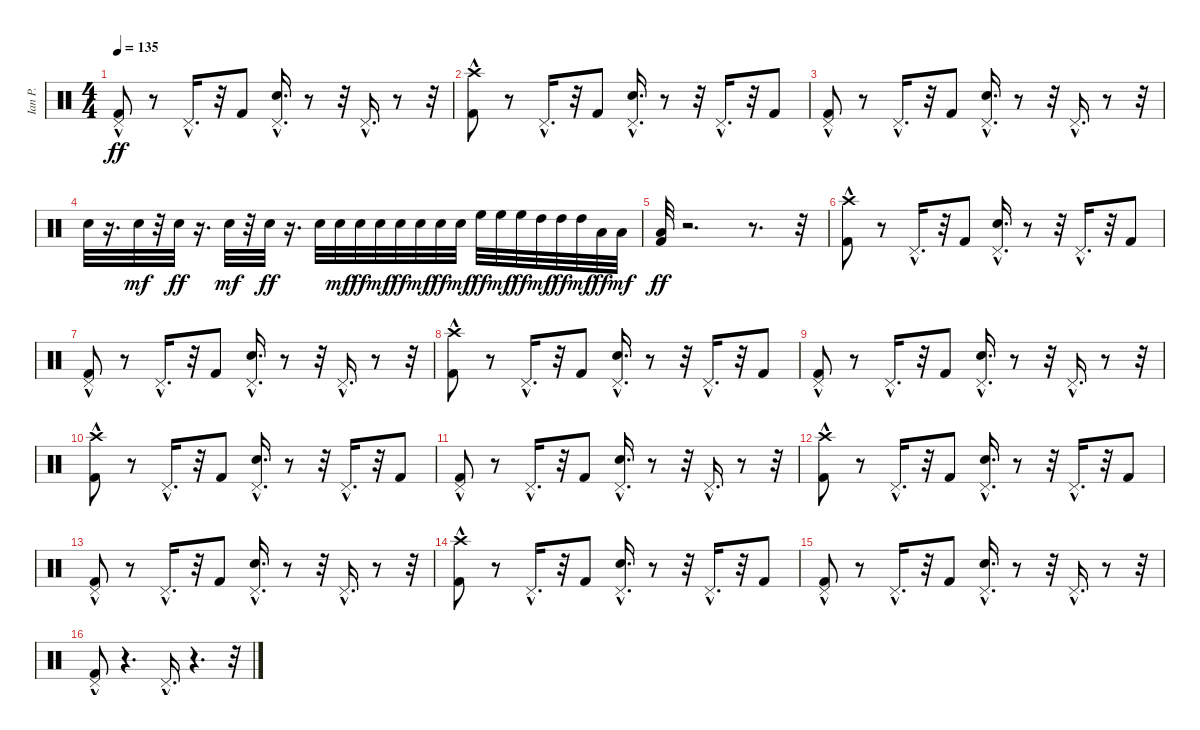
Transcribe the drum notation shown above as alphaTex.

\track ("Ian P." "Ian P.") {instrument percussion}
\staff {score}
\articulation defaults
\ts (4 4)
\tempo 135
\clef neutral
\ks c
("Kick (hit) 2" "Pedal Hi-Hat (hit)"{hac}).8{dy ff} r.8 "Pedal Hi-Hat (hit)"{hac}.16{d} r.32 "Kick (hit) 2".8 ("Snare (hit) 2"{hac} "Pedal Hi-Hat (hit)"{hac}).16{d} r.8 r.32 "Pedal Hi-Hat (hit)"{hac}.16{d} r.8 r.32 |
("Kick (hit) 2" "Crash high (hit)"{hac}).8 r.8 "Pedal Hi-Hat (hit)"{hac}.16{d} r.32 "Kick (hit) 2".8 ("Snare (hit) 2"{hac} "Pedal Hi-Hat (hit)"{hac}).16{d} r.8 r.32 "Pedal Hi-Hat (hit)"{hac}.16{d} r.32 "Kick (hit) 2".8 |
("Kick (hit) 2" "Pedal Hi-Hat (hit)"{hac}).8 r.8 "Pedal Hi-Hat (hit)"{hac}.16{d} r.32 "Kick (hit) 2".8 ("Snare (hit) 2"{hac} "Pedal Hi-Hat (hit)"{hac}).16{d} r.8 r.32 "Pedal Hi-Hat (hit)"{hac}.16{d} r.8 r.32 |
"Snare (hit) 2".32 r.16{d} "Snare (hit) 2".32{dy mf} r.32 "Snare (hit) 2".32{dy ff} r.16{d} "Snare (hit) 2".32{dy mf} r.32 "Snare (hit) 2".32{dy ff} r.16{d} "Snare (hit) 2".32 "Snare (hit) 2".32{dy mf} "Snare (hit) 2".32{dy ff} "Snare (hit) 2".32{dy mf} "Snare (hit) 2".32{dy ff} "Snare (hit) 2".32{dy mf} "Snare (hit) 2".32{dy ff} "Snare (hit) 2".32{dy mf} "High Floor Tom (hit)".32{dy ff} "High Floor Tom (hit)".32{dy mf} "High Floor Tom (hit)".32{dy ff} "High Tom (hit)".32{dy mf} "High Tom (hit)".32{dy ff} "High Tom (hit)".32{dy mf} "Low Tom (hit)".32{dy ff} "Low Tom (hit)".32{dy mf} |
("Low Floor Tom (hit)" "Kick (hit) 2").32{dy ff} r.2{d} r.8{d} r.32 |
("Kick (hit) 2" "Crash high (hit)"{hac}).8 r.8 "Pedal Hi-Hat (hit)"{hac}.16{d} r.32 "Kick (hit) 2".8 ("Snare (hit) 2"{hac} "Pedal Hi-Hat (hit)"{hac}).16{d} r.8 r.32 "Pedal Hi-Hat (hit)"{hac}.16{d} r.32 "Kick (hit) 2".8 |
("Kick (hit) 2" "Pedal Hi-Hat (hit)"{hac}).8 r.8 "Pedal Hi-Hat (hit)"{hac}.16{d} r.32 "Kick (hit) 2".8 ("Snare (hit) 2"{hac} "Pedal Hi-Hat (hit)"{hac}).16{d} r.8 r.32 "Pedal Hi-Hat (hit)"{hac}.16{d} r.8 r.32 |
("Kick (hit) 2" "Crash high (hit)"{hac}).8 r.8 "Pedal Hi-Hat (hit)"{hac}.16{d} r.32 "Kick (hit) 2".8 ("Snare (hit) 2"{hac} "Pedal Hi-Hat (hit)"{hac}).16{d} r.8 r.32 "Pedal Hi-Hat (hit)"{hac}.16{d} r.32 "Kick (hit) 2".8 |
("Kick (hit) 2" "Pedal Hi-Hat (hit)"{hac}).8 r.8 "Pedal Hi-Hat (hit)"{hac}.16{d} r.32 "Kick (hit) 2".8 ("Snare (hit) 2"{hac} "Pedal Hi-Hat (hit)"{hac}).16{d} r.8 r.32 "Pedal Hi-Hat (hit)"{hac}.16{d} r.8 r.32 |
("Kick (hit) 2" "Crash high (hit)"{hac}).8 r.8 "Pedal Hi-Hat (hit)"{hac}.16{d} r.32 "Kick (hit) 2".8 ("Snare (hit) 2"{hac} "Pedal Hi-Hat (hit)"{hac}).16{d} r.8 r.32 "Pedal Hi-Hat (hit)"{hac}.16{d} r.32 "Kick (hit) 2".8 |
("Kick (hit) 2" "Pedal Hi-Hat (hit)"{hac}).8 r.8 "Pedal Hi-Hat (hit)"{hac}.16{d} r.32 "Kick (hit) 2".8 ("Snare (hit) 2"{hac} "Pedal Hi-Hat (hit)"{hac}).16{d} r.8 r.32 "Pedal Hi-Hat (hit)"{hac}.16{d} r.8 r.32 |
("Kick (hit) 2" "Crash high (hit)"{hac}).8 r.8 "Pedal Hi-Hat (hit)"{hac}.16{d} r.32 "Kick (hit) 2".8 ("Snare (hit) 2"{hac} "Pedal Hi-Hat (hit)"{hac}).16{d} r.8 r.32 "Pedal Hi-Hat (hit)"{hac}.16{d} r.32 "Kick (hit) 2".8 |
("Kick (hit) 2" "Pedal Hi-Hat (hit)"{hac}).8 r.8 "Pedal Hi-Hat (hit)"{hac}.16{d} r.32 "Kick (hit) 2".8 ("Snare (hit) 2"{hac} "Pedal Hi-Hat (hit)"{hac}).16{d} r.8 r.32 "Pedal Hi-Hat (hit)"{hac}.16{d} r.8 r.32 |
("Kick (hit) 2" "Crash high (hit)"{hac}).8 r.8 "Pedal Hi-Hat (hit)"{hac}.16{d} r.32 "Kick (hit) 2".8 ("Snare (hit) 2"{hac} "Pedal Hi-Hat (hit)"{hac}).16{d} r.8 r.32 "Pedal Hi-Hat (hit)"{hac}.16{d} r.32 "Kick (hit) 2".8 |
("Kick (hit) 2" "Pedal Hi-Hat (hit)"{hac}).8 r.8 "Pedal Hi-Hat (hit)"{hac}.16{d} r.32 "Kick (hit) 2".8 ("Snare (hit) 2"{hac} "Pedal Hi-Hat (hit)"{hac}).16{d} r.8 r.32 "Pedal Hi-Hat (hit)"{hac}.16{d} r.8 r.32 |
("Kick (hit) 2" "Pedal Hi-Hat (hit)"{hac}).8 r.4{d} "Pedal Hi-Hat (hit)"{hac}.16{d} r.4{d} r.32
